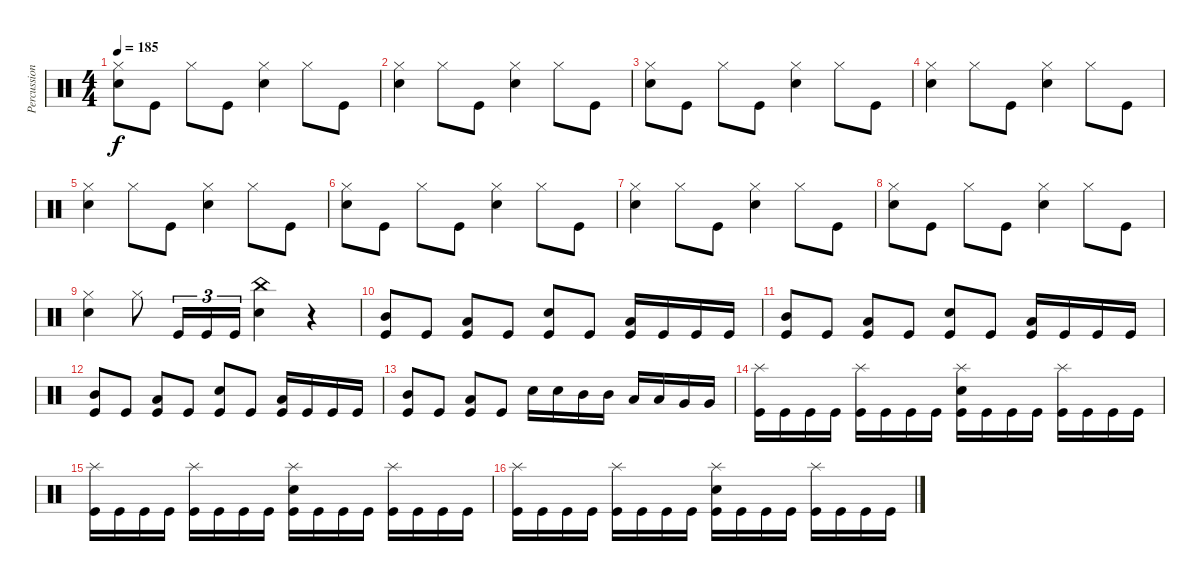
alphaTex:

\track ("Percussions" "Percussion") {instrument percussion}
\staff {score}
\articulation defaults
\ts (4 4)
\tempo 185
\clef neutral
\ks c
("Electric Snare (hit)" "Hi-Hat (closed)").8{dy f} "Kick (hit)".8 "Hi-Hat (closed)".8 "Kick (hit)".8 ("Electric Snare (hit)" "Hi-Hat (closed)").4 "Hi-Hat (closed)".8 "Kick (hit)".8 |
("Electric Snare (hit)" "Hi-Hat (closed)").4 "Hi-Hat (closed)".8 "Kick (hit)".8 ("Electric Snare (hit)" "Hi-Hat (closed)").4 "Hi-Hat (closed)".8 "Kick (hit)".8 |
("Electric Snare (hit)" "Hi-Hat (closed)").8 "Kick (hit)".8 "Hi-Hat (closed)".8 "Kick (hit)".8 ("Electric Snare (hit)" "Hi-Hat (closed)").4 "Hi-Hat (closed)".8 "Kick (hit)".8 |
("Electric Snare (hit)" "Hi-Hat (closed)").4 "Hi-Hat (closed)".8 "Kick (hit)".8 ("Electric Snare (hit)" "Hi-Hat (closed)").4 "Hi-Hat (closed)".8 "Kick (hit)".8 |
("Electric Snare (hit)" "Hi-Hat (closed)").4 "Hi-Hat (closed)".8 "Kick (hit)".8 ("Electric Snare (hit)" "Hi-Hat (closed)").4 "Hi-Hat (closed)".8 "Kick (hit)".8 |
("Electric Snare (hit)" "Hi-Hat (closed)").8 "Kick (hit)".8 "Hi-Hat (closed)".8 "Kick (hit)".8 ("Electric Snare (hit)" "Hi-Hat (closed)").4 "Hi-Hat (closed)".8 "Kick (hit)".8 |
("Electric Snare (hit)" "Hi-Hat (closed)").4 "Hi-Hat (closed)".8 "Kick (hit)".8 ("Electric Snare (hit)" "Hi-Hat (closed)").4 "Hi-Hat (closed)".8 "Kick (hit)".8 |
("Electric Snare (hit)" "Hi-Hat (closed)").8 "Kick (hit)".8 "Hi-Hat (closed)".8 "Kick (hit)".8 ("Electric Snare (hit)" "Hi-Hat (closed)").4 "Hi-Hat (closed)".8 "Kick (hit)".8 |
("Electric Snare (hit)" "Hi-Hat (closed)").4 "Hi-Hat (closed)".8 "Kick (hit)".16{tu (3 2)} "Kick (hit)".16{tu (3 2)} "Kick (hit)".16{tu (3 2)} ("Electric Snare (hit)" "China (hit)").4 r.4 |
("Kick (hit)" "Mid Tom (hit)").8 "Kick (hit)".8 ("Kick (hit)" "Low Tom (hit)").8 "Kick (hit)".8 ("Kick (hit)" "Electric Snare (hit)").8 "Kick (hit)".8 ("Kick (hit)" "Low Tom (hit)").16 "Kick (hit)".16 "Kick (hit)".16 "Kick (hit)".16 |
("Kick (hit)" "Mid Tom (hit)").8 "Kick (hit)".8 ("Kick (hit)" "Low Tom (hit)").8 "Kick (hit)".8 ("Kick (hit)" "Electric Snare (hit)").8 "Kick (hit)".8 ("Kick (hit)" "Low Tom (hit)").16 "Kick (hit)".16 "Kick (hit)".16 "Kick (hit)".16 |
("Kick (hit)" "Mid Tom (hit)").8 "Kick (hit)".8 ("Kick (hit)" "Low Tom (hit)").8 "Kick (hit)".8 ("Kick (hit)" "Electric Snare (hit)").8 "Kick (hit)".8 ("Kick (hit)" "Low Tom (hit)").16 "Kick (hit)".16 "Kick (hit)".16 "Kick (hit)".16 |
("Kick (hit)" "Mid Tom (hit)").8 "Kick (hit)".8 ("Kick (hit)" "Low Tom (hit)").8 "Kick (hit)".8 "Electric Snare (hit)".16 "Electric Snare (hit)".16 "Mid Tom (hit)".16 "Mid Tom (hit)".16 "Low Tom (hit)".16 "Low Tom (hit)".16 "Very Low Tom (hit)".16 "Very Low Tom (hit)".16 |
("Kick (hit)" "Splash (hit)").16 "Kick (hit)".16 "Kick (hit)".16 "Kick (hit)".16 ("Kick (hit)" "Splash (hit)").16 "Kick (hit)".16 "Kick (hit)".16 "Kick (hit)".16 ("Kick (hit)" "Electric Snare (hit)" "Splash (hit)").16 "Kick (hit)".16 "Kick (hit)".16 "Kick (hit)".16 ("Kick (hit)" "Splash (hit)").16 "Kick (hit)".16 "Kick (hit)".16 "Kick (hit)".16 |
("Kick (hit)" "Splash (hit)").16 "Kick (hit)".16 "Kick (hit)".16 "Kick (hit)".16 ("Kick (hit)" "Splash (hit)").16 "Kick (hit)".16 "Kick (hit)".16 "Kick (hit)".16 ("Kick (hit)" "Electric Snare (hit)" "Splash (hit)").16 "Kick (hit)".16 "Kick (hit)".16 "Kick (hit)".16 ("Kick (hit)" "Splash (hit)").16 "Kick (hit)".16 "Kick (hit)".16 "Kick (hit)".16 |
("Kick (hit)" "Splash (hit)").16 "Kick (hit)".16 "Kick (hit)".16 "Kick (hit)".16 ("Kick (hit)" "Splash (hit)").16 "Kick (hit)".16 "Kick (hit)".16 "Kick (hit)".16 ("Kick (hit)" "Electric Snare (hit)" "Splash (hit)").16 "Kick (hit)".16 "Kick (hit)".16 "Kick (hit)".16 ("Kick (hit)" "Splash (hit)").16 "Kick (hit)".16 "Kick (hit)".16 "Kick (hit)".16
